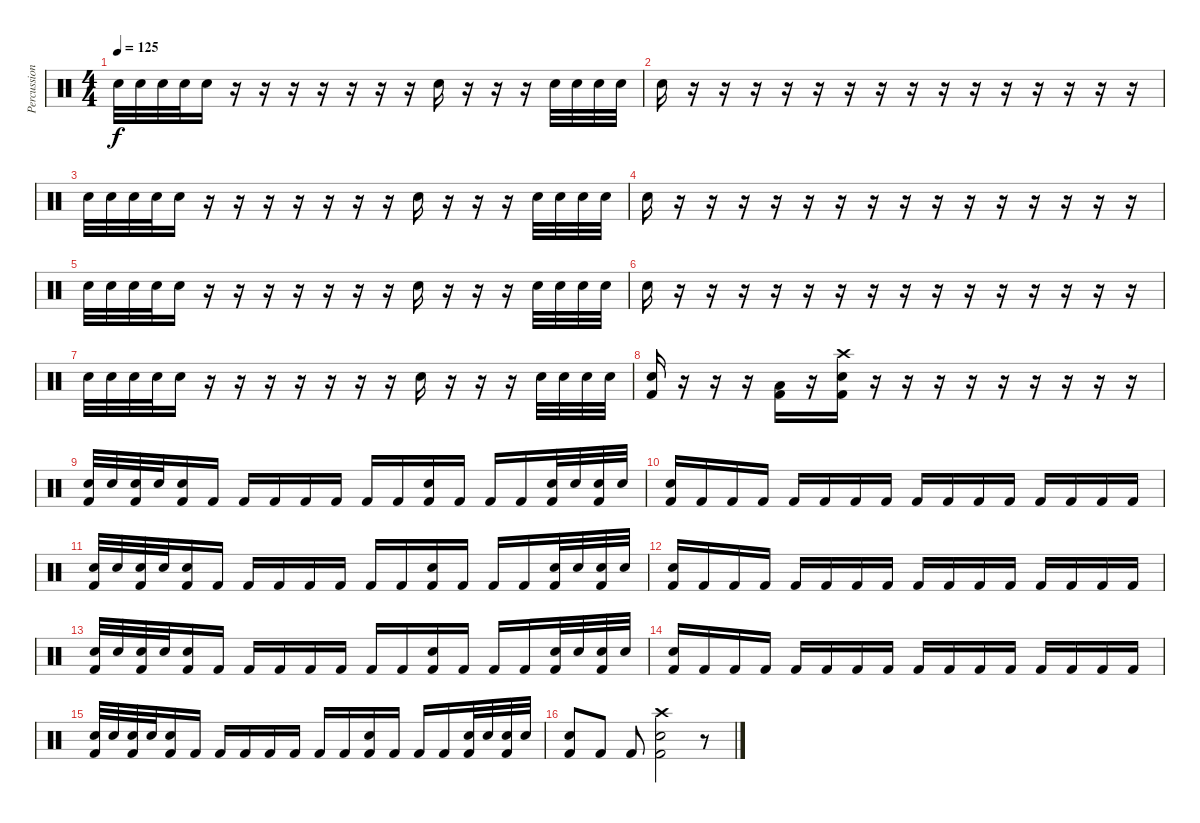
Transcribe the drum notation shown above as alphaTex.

\track ("Percussion" "Percussion") {instrument percussion}
\staff {score}
\articulation defaults
\ts (4 4)
\tempo 125
\clef neutral
\ks c "Electric Snare (hit)".32{dy f} "Electric Snare (hit)".32 "Electric Snare (hit)".32 "Electric Snare (hit)".32 "Electric Snare (hit)".16
r.16 r.16 r.16 r.16 r.16 r.16 r.16 "Electric Snare (hit)".16 r.16 r.16 r.16 "Electric Snare (hit)".32 "Electric Snare (hit)".32 "Electric Snare (hit)".32 "Electric Snare (hit)".32 |
"Electric Snare (hit)".16 r.16 r.16 r.16 r.16 r.16 r.16 r.16 r.16 r.16 r.16 r.16 r.16 r.16 r.16 r.16 |
"Electric Snare (hit)".32 "Electric Snare (hit)".32 "Electric Snare (hit)".32 "Electric Snare (hit)".32 "Electric Snare (hit)".16 r.16 r.16 r.16 r.16 r.16 r.16 r.16 "Electric Snare (hit)".16 r.16 r.16 r.16 "Electric Snare (hit)".32 "Electric Snare (hit)".32 "Electric Snare (hit)".32 "Electric Snare (hit)".32 |
"Electric Snare (hit)".16 r.16 r.16 r.16 r.16 r.16 r.16 r.16 r.16 r.16 r.16 r.16 r.16 r.16 r.16 r.16 |
"Electric Snare (hit)".32 "Electric Snare (hit)".32 "Electric Snare (hit)".32 "Electric Snare (hit)".32 "Electric Snare (hit)".16 r.16 r.16 r.16 r.16 r.16 r.16 r.16 "Electric Snare (hit)".16 r.16 r.16 r.16 "Electric Snare (hit)".32 "Electric Snare (hit)".32 "Electric Snare (hit)".32 "Electric Snare (hit)".32 |
"Electric Snare (hit)".16 r.16 r.16 r.16 r.16 r.16 r.16 r.16 r.16 r.16 r.16 r.16 r.16 r.16 r.16 r.16 |
"Electric Snare (hit)".32 "Electric Snare (hit)".32 "Electric Snare (hit)".32 "Electric Snare (hit)".32 "Electric Snare (hit)".16 r.16 r.16 r.16 r.16 r.16 r.16 r.16 "Electric Snare (hit)".16 r.16 r.16 r.16 "Electric Snare (hit)".32 "Electric Snare (hit)".32 "Electric Snare (hit)".32 "Electric Snare (hit)".32 |
("Electric Snare (hit)" "Kick (hit) 2").16 r.16 r.16 r.16 ("Low Floor Tom (hit)" "Kick (hit) 2").16 r.16 ("Crash high (hit)" "Electric Snare (hit)" "Kick (hit) 2").16 r.16 r.16 r.16 r.16 r.16 r.16 r.16 r.16 r.16 |
("Electric Snare (hit)" "Kick (hit) 2").32 "Electric Snare (hit)".32 ("Electric Snare (hit)" "Kick (hit) 2").32 "Electric Snare (hit)".32 ("Electric Snare (hit)" "Kick (hit) 2").16 "Kick (hit) 2".16 "Kick (hit) 2".16 "Kick (hit) 2".16 "Kick (hit) 2".16 "Kick (hit) 2".16 "Kick (hit) 2".16 "Kick (hit) 2".16 ("Electric Snare (hit)" "Kick (hit) 2").16 "Kick (hit) 2".16 "Kick (hit) 2".16 "Kick (hit) 2".16 ("Electric Snare (hit)" "Kick (hit) 2").32 "Electric Snare (hit)".32 ("Electric Snare (hit)" "Kick (hit) 2").32 "Electric Snare (hit)".32 |
("Electric Snare (hit)" "Kick (hit) 2").16 "Kick (hit) 2".16 "Kick (hit) 2".16 "Kick (hit) 2".16 "Kick (hit) 2".16 "Kick (hit) 2".16 "Kick (hit) 2".16 "Kick (hit) 2".16 "Kick (hit) 2".16 "Kick (hit) 2".16 "Kick (hit) 2".16 "Kick (hit) 2".16 "Kick (hit) 2".16 "Kick (hit) 2".16 "Kick (hit) 2".16 "Kick (hit) 2".16 |
("Electric Snare (hit)" "Kick (hit) 2").32 "Electric Snare (hit)".32 ("Electric Snare (hit)" "Kick (hit) 2").32 "Electric Snare (hit)".32 ("Electric Snare (hit)" "Kick (hit) 2").16 "Kick (hit) 2".16 "Kick (hit) 2".16 "Kick (hit) 2".16 "Kick (hit) 2".16 "Kick (hit) 2".16 "Kick (hit) 2".16 "Kick (hit) 2".16 ("Electric Snare (hit)" "Kick (hit) 2").16 "Kick (hit) 2".16 "Kick (hit) 2".16 "Kick (hit) 2".16 ("Electric Snare (hit)" "Kick (hit) 2").32 "Electric Snare (hit)".32 ("Electric Snare (hit)" "Kick (hit) 2").32 "Electric Snare (hit)".32 |
("Electric Snare (hit)" "Kick (hit) 2").16 "Kick (hit) 2".16 "Kick (hit) 2".16 "Kick (hit) 2".16 "Kick (hit) 2".16 "Kick (hit) 2".16 "Kick (hit) 2".16 "Kick (hit) 2".16 "Kick (hit) 2".16 "Kick (hit) 2".16 "Kick (hit) 2".16 "Kick (hit) 2".16 "Kick (hit) 2".16 "Kick (hit) 2".16 "Kick (hit) 2".16 "Kick (hit) 2".16 |
("Electric Snare (hit)" "Kick (hit) 2").32 "Electric Snare (hit)".32 ("Electric Snare (hit)" "Kick (hit) 2").32 "Electric Snare (hit)".32 ("Electric Snare (hit)" "Kick (hit) 2").16 "Kick (hit) 2".16 "Kick (hit) 2".16 "Kick (hit) 2".16 "Kick (hit) 2".16 "Kick (hit) 2".16 "Kick (hit) 2".16 "Kick (hit) 2".16 ("Electric Snare (hit)" "Kick (hit) 2").16 "Kick (hit) 2".16 "Kick (hit) 2".16 "Kick (hit) 2".16 ("Electric Snare (hit)" "Kick (hit) 2").32 "Electric Snare (hit)".32 ("Electric Snare (hit)" "Kick (hit) 2").32 "Electric Snare (hit)".32 |
("Electric Snare (hit)" "Kick (hit) 2").16 "Kick (hit) 2".16 "Kick (hit) 2".16 "Kick (hit) 2".16 "Kick (hit) 2".16 "Kick (hit) 2".16 "Kick (hit) 2".16 "Kick (hit) 2".16 "Kick (hit) 2".16 "Kick (hit) 2".16 "Kick (hit) 2".16 "Kick (hit) 2".16 "Kick (hit) 2".16 "Kick (hit) 2".16 "Kick (hit) 2".16 "Kick (hit) 2".16 |
("Electric Snare (hit)" "Kick (hit) 2").32 "Electric Snare (hit)".32 ("Electric Snare (hit)" "Kick (hit) 2").32 "Electric Snare (hit)".32 ("Electric Snare (hit)" "Kick (hit) 2").16 "Kick (hit) 2".16 "Kick (hit) 2".16 "Kick (hit) 2".16 "Kick (hit) 2".16 "Kick (hit) 2".16 "Kick (hit) 2".16 "Kick (hit) 2".16 ("Electric Snare (hit)" "Kick (hit) 2").16 "Kick (hit) 2".16 "Kick (hit) 2".16 "Kick (hit) 2".16 ("Electric Snare (hit)" "Kick (hit) 2").32 "Electric Snare (hit)".32 ("Electric Snare (hit)" "Kick (hit) 2").32 "Electric Snare (hit)".32 |
("Electric Snare (hit)" "Kick (hit) 2").8 "Kick (hit) 2".8 "Kick (hit) 2".8 ("Crash high (hit)" "Electric Snare (hit)" "Kick (hit) 2").2 r.8
